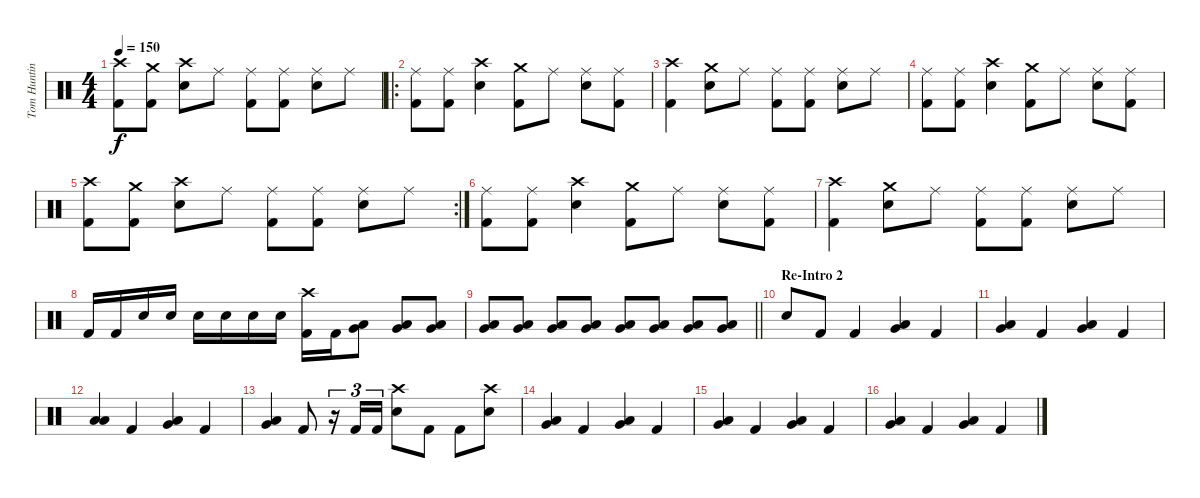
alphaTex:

\track ("Tom Hunting" "Tom Huntin") {instrument percussion}
\staff {score}
\articulation defaults
\ts (4 4)
\tempo 150
\clef neutral
\ks c
("Crash high (hit)" "Kick (hit) 2").8{dy f} ("Crash medium (hit)" "Kick (hit) 2").8 ("Crash high (hit)" "Snare (hit) 2").8 "Ride (middle)".8 ("Ride (middle)" "Kick (hit) 2").8 ("Ride (middle)" "Kick (hit) 2").8 ("Ride (middle)" "Snare (hit) 2").8 "Ride (middle)".8 |
\ro
("Ride (middle)" "Kick (hit) 2").8 ("Ride (middle)" "Kick (hit) 2").8 ("Crash high (hit)" "Snare (hit) 2").4 ("Crash medium (hit)" "Kick (hit) 2").8 "Ride (middle)".8 ("Ride (middle)" "Snare (hit) 2").8 ("Ride (middle)" "Kick (hit) 2").8 |
("Crash high (hit)" "Kick (hit) 2").4 ("Crash medium (hit)" "Snare (hit) 2").8 "Ride (middle)".8 ("Ride (middle)" "Kick (hit) 2").8 ("Ride (middle)" "Kick (hit) 2").8 ("Ride (middle)" "Snare (hit) 2").8 "Ride (middle)".8 |
("Ride (middle)" "Kick (hit) 2").8 ("Ride (middle)" "Kick (hit) 2").8 ("Crash high (hit)" "Snare (hit) 2").4 ("Crash medium (hit)" "Kick (hit) 2").8 "Ride (middle)".8 ("Ride (middle)" "Snare (hit) 2").8 ("Ride (middle)" "Kick (hit) 2").8 |
\rc 2
("Crash high (hit)" "Kick (hit) 2").8 ("Crash medium (hit)" "Kick (hit) 2").8 ("Crash high (hit)" "Snare (hit) 2").8 "Ride (middle)".8 ("Ride (middle)" "Kick (hit) 2").8 ("Ride (middle)" "Kick (hit) 2").8 ("Ride (middle)" "Snare (hit) 2").8 "Ride (middle)".8 |
("Ride (middle)" "Kick (hit) 2").8 ("Ride (middle)" "Kick (hit) 2").8 ("Crash high (hit)" "Snare (hit) 2").4 ("Crash medium (hit)" "Kick (hit) 2").8 "Ride (middle)".8 ("Ride (middle)" "Snare (hit) 2").8 ("Ride (middle)" "Kick (hit) 2").8 |
("Crash high (hit)" "Kick (hit) 2").4 ("Crash medium (hit)" "Snare (hit) 2").8 "Ride (middle)".8 ("Ride (middle)" "Kick (hit) 2").8 ("Ride (middle)" "Kick (hit) 2").8 ("Ride (middle)" "Snare (hit) 2").8 "Ride (middle)".8 |
"Kick (hit) 2".16 "Kick (hit) 2".16 "Snare (hit) 2".16 "Snare (hit) 2".16 "Snare (hit) 2".16 "Snare (hit) 2".16 "Snare (hit) 2".16 "Snare (hit) 2".16 ("Crash high (hit)" "Kick (hit) 2").16 "Kick (hit) 2".16 ("Low Tom (hit)" "Very Low Tom (hit)").8 ("Low Tom (hit)" "Very Low Tom (hit)").8 ("Low Tom (hit)" "Very Low Tom (hit)").8 |
\barLineRight lightlight
("Low Tom (hit)" "Very Low Tom (hit)").8 ("Low Tom (hit)" "Very Low Tom (hit)").8 ("Low Tom (hit)" "Very Low Tom (hit)").8 ("Low Tom (hit)" "Very Low Tom (hit)").8 ("Low Tom (hit)" "Very Low Tom (hit)").8 ("Low Tom (hit)" "Very Low Tom (hit)").8 ("Low Tom (hit)" "Very Low Tom (hit)").8 ("Low Tom (hit)" "Very Low Tom (hit)").8 |
\section ("" "Re-Intro 2")
"Snare (hit) 2".8 "Kick (hit) 2".8 "Kick (hit) 2".4 ("Low Tom (hit)" "Very Low Tom (hit)").4 "Kick (hit) 2".4 |
("Very Low Tom (hit)" "Low Floor Tom (hit)").4 "Kick (hit) 2".4 ("Low Tom (hit)" "Very Low Tom (hit)").4 "Kick (hit) 2".4 |
("Low Tom (hit)" "Low Floor Tom (hit)").4 "Kick (hit) 2".4 ("Low Tom (hit)" "Very Low Tom (hit)").4 "Kick (hit) 2".4 |
("Very Low Tom (hit)" "Low Floor Tom (hit)").4 "Kick (hit) 2".8 r.16{tu (3 2)} "Kick (hit) 2".16{tu (3 2)} "Kick (hit) 2".16{tu (3 2)} ("Crash high (hit)" "Snare (hit) 2").8 "Kick (hit) 2".8 "Kick (hit) 2".8 ("Crash high (hit)" "Snare (hit) 2").8 |
("Very Low Tom (hit)" "Low Floor Tom (hit)").4 "Kick (hit) 2".4 ("Low Tom (hit)" "Very Low Tom (hit)").4 "Kick (hit) 2".4 |
("Very Low Tom (hit)" "Low Floor Tom (hit)").4 "Kick (hit) 2".4 ("Low Tom (hit)" "Very Low Tom (hit)").4 "Kick (hit) 2".4 |
("Very Low Tom (hit)" "Low Floor Tom (hit)").4 "Kick (hit) 2".4 ("Low Tom (hit)" "Very Low Tom (hit)").4 "Kick (hit) 2".4
